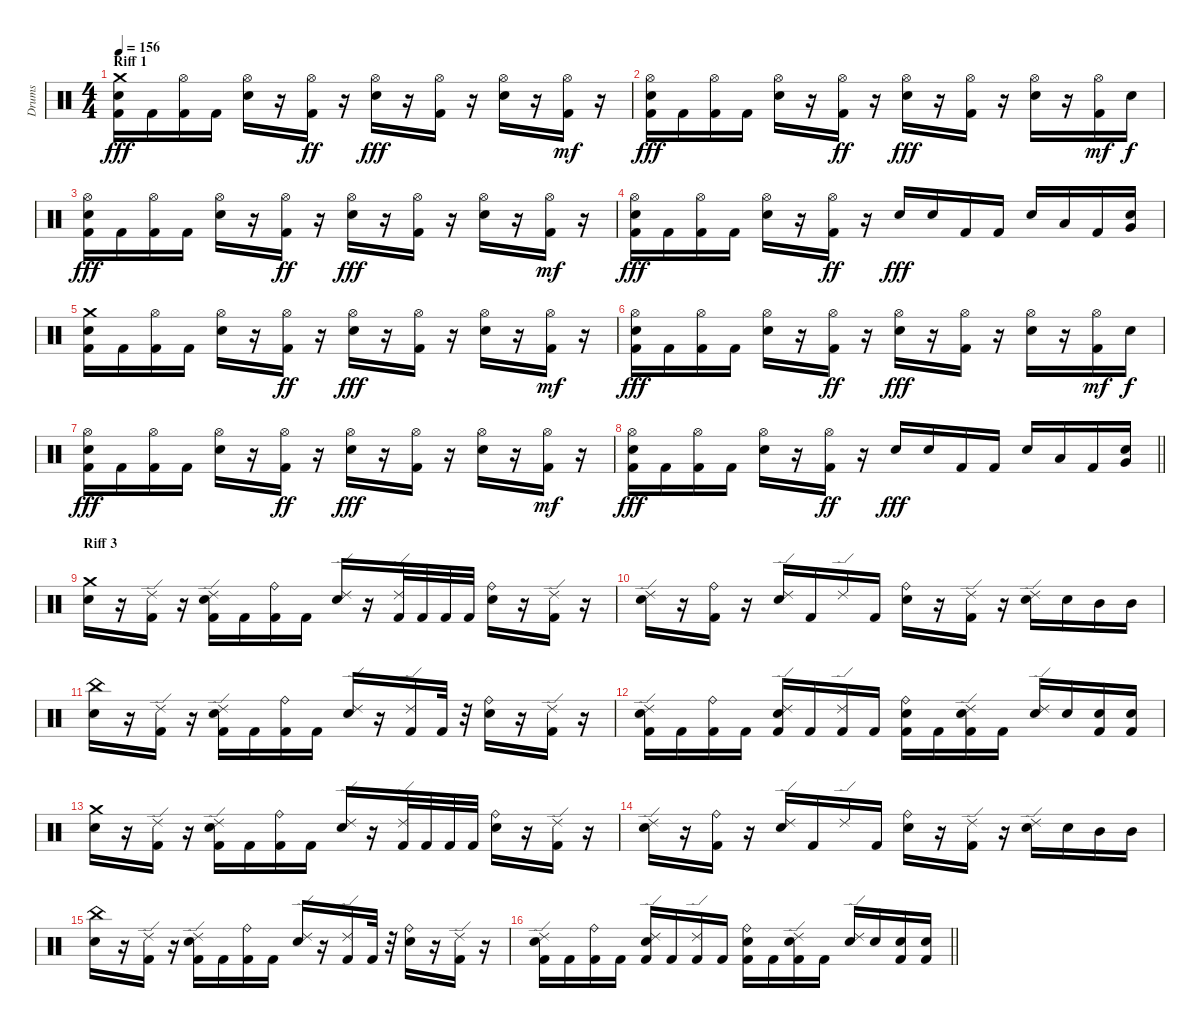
\track ("Drums" "Drums") {instrument percussion}
\staff {score}
\articulation defaults
\ts (4 4)
\section ("" "Riff 1")
\tempo 156
\clef neutral
\ks c
("Kick (hit) 2" "Snare (hit) 2" "Crash medium (hit)").16{dy fff} "Kick (hit) 2".16 ("Kick (hit) 2" "Hi-Hat (open)").16 "Kick (hit) 2".16 ("Snare (hit) 2" "Hi-Hat (open)").16 r.16 ("Kick (hit) 2" "Hi-Hat (open)").16{dy ff} r.16 ("Snare (hit) 2" "Hi-Hat (open)").16{dy fff} r.16 ("Kick (hit) 2" "Hi-Hat (open)").16 r.16 ("Snare (hit) 2" "Hi-Hat (open)").16 r.16 ("Kick (hit) 2" "Hi-Hat (open)").16{dy mf} r.16 |
("Kick (hit) 2" "Snare (hit) 2" "Hi-Hat (open)").16{dy fff} "Kick (hit) 2".16 ("Kick (hit) 2" "Hi-Hat (open)").16 "Kick (hit) 2".16 ("Snare (hit) 2" "Hi-Hat (open)").16 r.16 ("Kick (hit) 2" "Hi-Hat (open)").16{dy ff} r.16 ("Snare (hit) 2" "Hi-Hat (open)").16{dy fff} r.16 ("Kick (hit) 2" "Hi-Hat (open)").16 r.16 ("Snare (hit) 2" "Hi-Hat (open)").16 r.16 ("Kick (hit) 2" "Hi-Hat (open)").16{dy mf} "Snare (hit) 2".16{dy f} |
("Kick (hit) 2" "Snare (hit) 2" "Hi-Hat (open)").16{dy fff} "Kick (hit) 2".16 ("Kick (hit) 2" "Hi-Hat (open)").16 "Kick (hit) 2".16 ("Snare (hit) 2" "Hi-Hat (open)").16 r.16 ("Kick (hit) 2" "Hi-Hat (open)").16{dy ff} r.16 ("Snare (hit) 2" "Hi-Hat (open)").16{dy fff} r.16 ("Kick (hit) 2" "Hi-Hat (open)").16 r.16 ("Snare (hit) 2" "Hi-Hat (open)").16 r.16 ("Kick (hit) 2" "Hi-Hat (open)").16{dy mf} r.16 |
("Kick (hit) 2" "Snare (hit) 2" "Hi-Hat (open)").16{dy fff} "Kick (hit) 2".16 ("Kick (hit) 2" "Hi-Hat (open)").16 "Kick (hit) 2".16 ("Snare (hit) 2" "Hi-Hat (open)").16 r.16 ("Kick (hit) 2" "Hi-Hat (open)").16{dy ff} r.16 "Snare (hit) 2".16{dy fff} "Snare (hit) 2".16 "Kick (hit) 2".16 "Kick (hit) 2".16 "Snare (hit) 2".16 "Low Tom (hit)".16 "Kick (hit) 2".16 ("Snare (hit) 2" "Very Low Tom (hit)").16 |
("Kick (hit) 2" "Snare (hit) 2" "Crash medium (hit)").16 "Kick (hit) 2".16 ("Kick (hit) 2" "Hi-Hat (open)").16 "Kick (hit) 2".16 ("Snare (hit) 2" "Hi-Hat (open)").16 r.16 ("Kick (hit) 2" "Hi-Hat (open)").16{dy ff} r.16 ("Snare (hit) 2" "Hi-Hat (open)").16{dy fff} r.16 ("Kick (hit) 2" "Hi-Hat (open)").16 r.16 ("Snare (hit) 2" "Hi-Hat (open)").16 r.16 ("Kick (hit) 2" "Hi-Hat (open)").16{dy mf} r.16 |
("Kick (hit) 2" "Snare (hit) 2" "Hi-Hat (open)").16{dy fff} "Kick (hit) 2".16 ("Kick (hit) 2" "Hi-Hat (open)").16 "Kick (hit) 2".16 ("Snare (hit) 2" "Hi-Hat (open)").16 r.16 ("Kick (hit) 2" "Hi-Hat (open)").16{dy ff} r.16 ("Snare (hit) 2" "Hi-Hat (open)").16{dy fff} r.16 ("Kick (hit) 2" "Hi-Hat (open)").16 r.16 ("Snare (hit) 2" "Hi-Hat (open)").16 r.16 ("Kick (hit) 2" "Hi-Hat (open)").16{dy mf} "Snare (hit) 2".16{dy f} |
("Kick (hit) 2" "Snare (hit) 2" "Hi-Hat (open)").16{dy fff} "Kick (hit) 2".16 ("Kick (hit) 2" "Hi-Hat (open)").16 "Kick (hit) 2".16 ("Snare (hit) 2" "Hi-Hat (open)").16 r.16 ("Kick (hit) 2" "Hi-Hat (open)").16{dy ff} r.16 ("Snare (hit) 2" "Hi-Hat (open)").16{dy fff} r.16 ("Kick (hit) 2" "Hi-Hat (open)").16 r.16 ("Snare (hit) 2" "Hi-Hat (open)").16 r.16 ("Kick (hit) 2" "Hi-Hat (open)").16{dy mf} r.16 |
\barLineRight lightlight
("Kick (hit) 2" "Snare (hit) 2" "Hi-Hat (open)").16{dy fff} "Kick (hit) 2".16 ("Kick (hit) 2" "Hi-Hat (open)").16 "Kick (hit) 2".16 ("Snare (hit) 2" "Hi-Hat (open)").16 r.16 ("Kick (hit) 2" "Hi-Hat (open)").16{dy ff} r.16 "Snare (hit) 2".16{dy fff} "Snare (hit) 2".16 "Kick (hit) 2".16 "Kick (hit) 2".16 "Snare (hit) 2".16 "Low Tom (hit)".16 "Kick (hit) 2".16 ("Snare (hit) 2" "Very Low Tom (hit)").16 |
\section ("" "Riff 3")
("Snare (hit) 2" "Crash medium (hit)").16 r.16 ("Kick (hit) 2" "Ride (edge) 2").16 r.16 ("Kick (hit) 2" "Snare (hit) 2" "Ride (edge) 2").16 "Kick (hit) 2".16 ("Kick (hit) 2" "Ride (bell)").16 "Kick (hit) 2".16 ("Snare (hit) 2" "Ride (edge) 2").16 r.16 ("Kick (hit) 2" "Ride (edge) 2").32 "Kick (hit) 2".32 "Kick (hit) 2".32 "Kick (hit) 2".32 ("Snare (hit) 2" "Ride (bell)").16 r.16 ("Kick (hit) 2" "Ride (edge) 2").16 r.16 |
("Snare (hit) 2" "Ride (edge) 2").16 r.16 ("Kick (hit) 2" "Ride (bell)").16 r.16 ("Snare (hit) 2" "Ride (edge) 2").16 "Kick (hit) 2".16 "Ride (edge) 2".16 "Kick (hit) 2".16 ("Snare (hit) 2" "Ride (bell)").16 r.16 ("Kick (hit) 2" "Ride (edge) 2").16 r.16 ("Snare (hit) 2" "Ride (edge) 2").16 "Snare (hit) 2".16 "Mid Tom (hit)".16 "Mid Tom (hit)".16 |
("Snare (hit) 2" "China (hit)").16 r.16 ("Kick (hit) 2" "Ride (edge) 2").16 r.16 ("Kick (hit) 2" "Snare (hit) 2" "Ride (edge) 2").16 "Kick (hit) 2".16 ("Kick (hit) 2" "Ride (bell)").16 "Kick (hit) 2".16 ("Snare (hit) 2" "Ride (edge) 2").16 r.16 ("Kick (hit) 2" "Ride (edge) 2").16 "Kick (hit) 2".32 r.32 ("Snare (hit) 2" "Ride (bell)").16 r.16 ("Kick (hit) 2" "Ride (edge) 2").16 r.16 |
("Kick (hit) 2" "Snare (hit) 2" "Ride (edge) 2").16 "Kick (hit) 2".16 ("Kick (hit) 2" "Ride (bell)").16 "Kick (hit) 2".16 ("Kick (hit) 2" "Snare (hit) 2" "Ride (edge) 2").16 "Kick (hit) 2".16 ("Kick (hit) 2" "Ride (edge) 2").16 "Kick (hit) 2".16 ("Kick (hit) 2" "Snare (hit) 2" "Ride (bell)").16 "Kick (hit) 2".16 ("Kick (hit) 2" "Snare (hit) 2" "Ride (edge) 2").16 "Kick (hit) 2".16 ("Snare (hit) 2" "Ride (edge) 2").16 "Snare (hit) 2".16 ("Kick (hit) 2" "Snare (hit) 2").16 ("Kick (hit) 2" "Snare (hit) 2").16 |
("Snare (hit) 2" "Crash medium (hit)").16 r.16 ("Kick (hit) 2" "Ride (edge) 2").16 r.16 ("Kick (hit) 2" "Snare (hit) 2" "Ride (edge) 2").16 "Kick (hit) 2".16 ("Kick (hit) 2" "Ride (bell)").16 "Kick (hit) 2".16 ("Snare (hit) 2" "Ride (edge) 2").16 r.16 ("Kick (hit) 2" "Ride (edge) 2").32 "Kick (hit) 2".32 "Kick (hit) 2".32 "Kick (hit) 2".32 ("Snare (hit) 2" "Ride (bell)").16 r.16 ("Kick (hit) 2" "Ride (edge) 2").16 r.16 |
("Snare (hit) 2" "Ride (edge) 2").16 r.16 ("Kick (hit) 2" "Ride (bell)").16 r.16 ("Snare (hit) 2" "Ride (edge) 2").16 "Kick (hit) 2".16 "Ride (edge) 2".16 "Kick (hit) 2".16 ("Snare (hit) 2" "Ride (bell)").16 r.16 ("Kick (hit) 2" "Ride (edge) 2").16 r.16 ("Snare (hit) 2" "Ride (edge) 2").16 "Snare (hit) 2".16 "Mid Tom (hit)".16 "Mid Tom (hit)".16 |
("Snare (hit) 2" "China (hit)").16 r.16 ("Kick (hit) 2" "Ride (edge) 2").16 r.16 ("Kick (hit) 2" "Snare (hit) 2" "Ride (edge) 2").16 "Kick (hit) 2".16 ("Kick (hit) 2" "Ride (bell)").16 "Kick (hit) 2".16 ("Snare (hit) 2" "Ride (edge) 2").16 r.16 ("Kick (hit) 2" "Ride (edge) 2").16 "Kick (hit) 2".32 r.32 ("Snare (hit) 2" "Ride (bell)").16 r.16 ("Kick (hit) 2" "Ride (edge) 2").16 r.16 |
\barLineRight lightlight
("Kick (hit) 2" "Snare (hit) 2" "Ride (edge) 2").16 "Kick (hit) 2".16 ("Kick (hit) 2" "Ride (bell)").16 "Kick (hit) 2".16 ("Kick (hit) 2" "Snare (hit) 2" "Ride (edge) 2").16 "Kick (hit) 2".16 ("Kick (hit) 2" "Ride (edge) 2").16 "Kick (hit) 2".16 ("Kick (hit) 2" "Snare (hit) 2" "Ride (bell)").16 "Kick (hit) 2".16 ("Kick (hit) 2" "Snare (hit) 2" "Ride (edge) 2").16 "Kick (hit) 2".16 ("Snare (hit) 2" "Ride (edge) 2").16 "Snare (hit) 2".16 ("Kick (hit) 2" "Snare (hit) 2").16 ("Kick (hit) 2" "Snare (hit) 2").16
